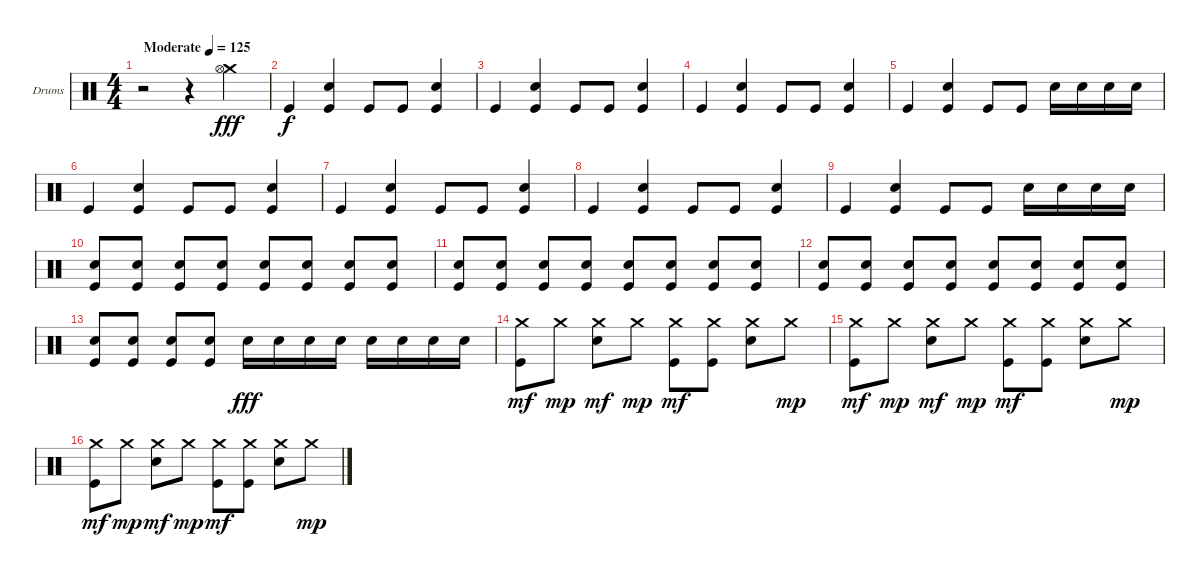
\bracketExtendMode groupsimilarinstruments
\firstSystemTrackNameOrientation horizontal
\otherSystemsTrackNameOrientation horizontal
\track ("Rian Dawson" "Drums") {instrument percussion}
\staff {score}
\articulation defaults
\ts (4 4)
\beaming (8 2 2 2 2)
\tempo (125 "Moderate")
\clef neutral
\ks c
r.2{dy fff} r.4 ("Crash medium (hit)" "Hi-Hat (open)").4 |
"Kick (hit)".4{dy f} ("Snare (hit) 2" "Kick (hit)").4 "Kick (hit)".8 "Kick (hit)".8 ("Snare (hit) 2" "Kick (hit)").4 |
"Kick (hit)".4 ("Snare (hit) 2" "Kick (hit)").4 "Kick (hit)".8 "Kick (hit)".8 ("Snare (hit) 2" "Kick (hit)").4 |
"Kick (hit)".4 ("Snare (hit) 2" "Kick (hit)").4 "Kick (hit)".8 "Kick (hit)".8 ("Snare (hit) 2" "Kick (hit)").4 |
"Kick (hit)".4 ("Snare (hit) 2" "Kick (hit)").4 "Kick (hit)".8 "Kick (hit)".8 "Snare (hit) 2".16 "Snare (hit) 2".16 "Snare (hit) 2".16 "Snare (hit) 2".16 |
"Kick (hit)".4 ("Snare (hit) 2" "Kick (hit)").4 "Kick (hit)".8 "Kick (hit)".8 ("Snare (hit) 2" "Kick (hit)").4 |
"Kick (hit)".4 ("Snare (hit) 2" "Kick (hit)").4 "Kick (hit)".8 "Kick (hit)".8 ("Snare (hit) 2" "Kick (hit)").4 |
"Kick (hit)".4 ("Snare (hit) 2" "Kick (hit)").4 "Kick (hit)".8 "Kick (hit)".8 ("Snare (hit) 2" "Kick (hit)").4 |
"Kick (hit)".4 ("Snare (hit) 2" "Kick (hit)").4 "Kick (hit)".8 "Kick (hit)".8 "Snare (hit) 2".16 "Snare (hit) 2".16 "Snare (hit) 2".16 "Snare (hit) 2".16 |
("Snare (hit) 2" "Kick (hit)").8 ("Snare (hit) 2" "Kick (hit)").8 ("Snare (hit) 2" "Kick (hit)").8 ("Snare (hit) 2" "Kick (hit)").8 ("Snare (hit) 2" "Kick (hit)").8 ("Snare (hit) 2" "Kick (hit)").8 ("Snare (hit) 2" "Kick (hit)").8 ("Snare (hit) 2" "Kick (hit)").8 |
("Snare (hit) 2" "Kick (hit)").8 ("Snare (hit) 2" "Kick (hit)").8 ("Snare (hit) 2" "Kick (hit)").8 ("Snare (hit) 2" "Kick (hit)").8 ("Snare (hit) 2" "Kick (hit)").8 ("Snare (hit) 2" "Kick (hit)").8 ("Snare (hit) 2" "Kick (hit)").8 ("Snare (hit) 2" "Kick (hit)").8 |
("Snare (hit) 2" "Kick (hit)").8 ("Snare (hit) 2" "Kick (hit)").8 ("Snare (hit) 2" "Kick (hit)").8 ("Snare (hit) 2" "Kick (hit)").8 ("Snare (hit) 2" "Kick (hit)").8 ("Snare (hit) 2" "Kick (hit)").8 ("Snare (hit) 2" "Kick (hit)").8 ("Snare (hit) 2" "Kick (hit)").8 |
("Snare (hit) 2" "Kick (hit)").8 ("Snare (hit) 2" "Kick (hit)").8 ("Snare (hit) 2" "Kick (hit)").8 ("Snare (hit) 2" "Kick (hit)").8 "Snare (hit) 2".16{dy fff} "Snare (hit) 2".16 "Snare (hit) 2".16 "Snare (hit) 2".16 "Snare (hit) 2".16 "Snare (hit) 2".16 "Snare (hit) 2".16 "Snare (hit) 2".16 |
("Crash medium (hit)" "Kick (hit)").8{dy mf} "Crash medium (hit)".8{dy mp} ("Crash medium (hit)" "Snare (hit) 2").8{dy mf} "Crash medium (hit)".8{dy mp} ("Crash medium (hit)" "Kick (hit)").8{dy mf} ("Crash medium (hit)" "Kick (hit)").8 ("Crash medium (hit)" "Snare (hit) 2").8 "Crash medium (hit)".8{dy mp} |
("Crash medium (hit)" "Kick (hit)").8{dy mf} "Crash medium (hit)".8{dy mp} ("Crash medium (hit)" "Snare (hit) 2").8{dy mf} "Crash medium (hit)".8{dy mp} ("Crash medium (hit)" "Kick (hit)").8{dy mf} ("Crash medium (hit)" "Kick (hit)").8 ("Crash medium (hit)" "Snare (hit) 2").8 "Crash medium (hit)".8{dy mp} |
("Crash medium (hit)" "Kick (hit)").8{dy mf} "Crash medium (hit)".8{dy mp} ("Crash medium (hit)" "Snare (hit) 2").8{dy mf} "Crash medium (hit)".8{dy mp} ("Crash medium (hit)" "Kick (hit)").8{dy mf} ("Crash medium (hit)" "Kick (hit)").8 ("Crash medium (hit)" "Snare (hit) 2").8 "Crash medium (hit)".8{dy mp}
